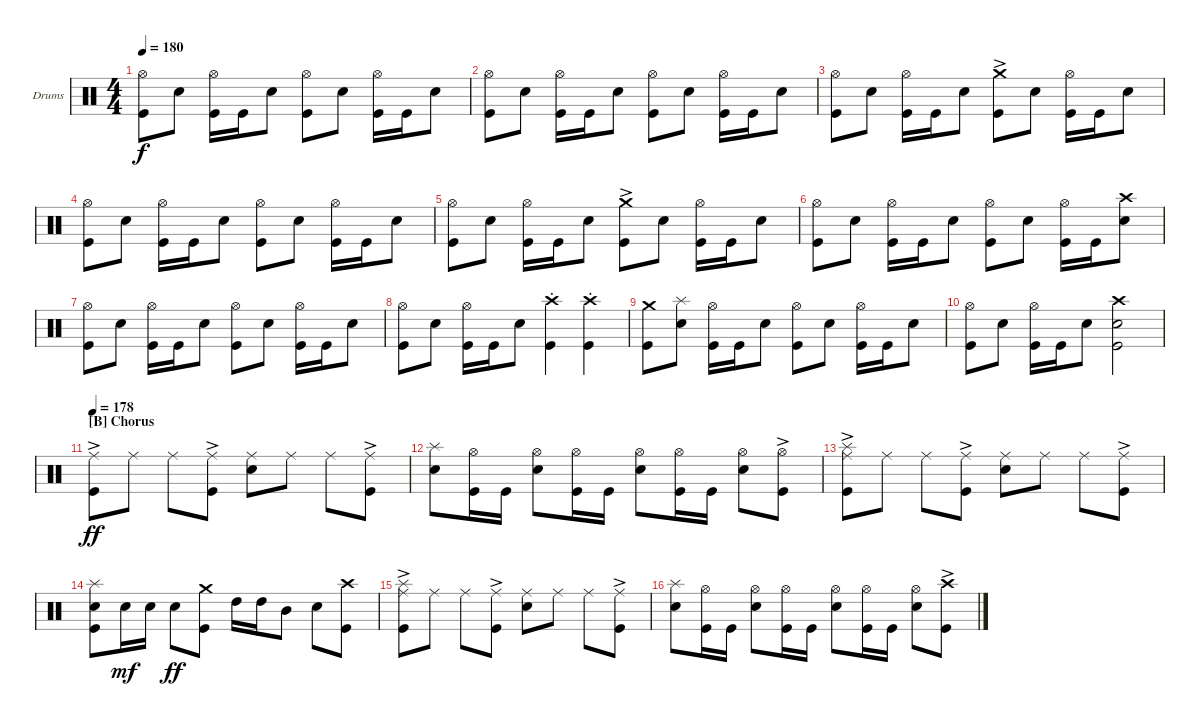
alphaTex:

\bracketExtendMode groupsimilarinstruments
\firstSystemTrackNameOrientation horizontal
\otherSystemsTrackNameOrientation horizontal
\track ("Drumkit" "Drums") {instrument percussion}
\staff {score}
\articulation defaults
\ts (4 4)
\tempo 180
\clef neutral
\scale
0.973518
\ks c
("Kick (hit)" "Hi-Hat (open)").8{dy f} "Snare (hit) 2".8 ("Kick (hit)" "Hi-Hat (open)").16 "Kick (hit)".16 "Snare (hit) 2".8 ("Kick (hit)" "Hi-Hat (open)").8 "Snare (hit) 2".8 ("Kick (hit)" "Hi-Hat (open)").16 "Kick (hit)".16 "Snare (hit) 2".8 |
\scale
1.02648 ("Kick (hit)" "Hi-Hat (open)").8 "Snare (hit) 2".8 ("Kick (hit)" "Hi-Hat (open)").16 "Kick (hit)".16 "Snare (hit) 2".8 ("Kick (hit)" "Hi-Hat (open)").8 "Snare (hit) 2".8 ("Kick (hit)" "Hi-Hat (open)").16 "Kick (hit)".16 "Snare (hit) 2".8 |
\scale
0.973518 ("Kick (hit)" "Hi-Hat (open)").8 "Snare (hit) 2".8 ("Kick (hit)" "Hi-Hat (open)").16 "Kick (hit)".16 "Snare (hit) 2".8 ("Kick (hit)" "Crash medium (hit)"{ac}).8 "Snare (hit) 2".8 ("Kick (hit)" "Hi-Hat (open)").16 "Kick (hit)".16 "Snare (hit) 2".8 |
\scale
1.02648 ("Kick (hit)" "Hi-Hat (open)").8 "Snare (hit) 2".8 ("Kick (hit)" "Hi-Hat (open)").16 "Kick (hit)".16 "Snare (hit) 2".8 ("Kick (hit)" "Hi-Hat (open)").8 "Snare (hit) 2".8 ("Kick (hit)" "Hi-Hat (open)").16 "Kick (hit)".16 "Snare (hit) 2".8 |
\scale
0.973518 ("Kick (hit)" "Hi-Hat (open)").8 "Snare (hit) 2".8 ("Kick (hit)" "Hi-Hat (open)").16 "Kick (hit)".16 "Snare (hit) 2".8 ("Kick (hit)" "Crash medium (hit)"{ac}).8 "Snare (hit) 2".8 ("Kick (hit)" "Hi-Hat (open)").16 "Kick (hit)".16 "Snare (hit) 2".8 |
\scale
1.02648 ("Kick (hit)" "Hi-Hat (open)").8 "Snare (hit) 2".8 ("Kick (hit)" "Hi-Hat (open)").16 "Kick (hit)".16 "Snare (hit) 2".8 ("Kick (hit)" "Hi-Hat (open)").8 "Snare (hit) 2".8 ("Kick (hit)" "Hi-Hat (open)").16 "Kick (hit)".16 ("Snare (hit) 2" "Crash high (hit)").8 |
\scale
0.973518 ("Kick (hit)" "Hi-Hat (open)").8 "Snare (hit) 2".8 ("Kick (hit)" "Hi-Hat (open)").16 "Kick (hit)".16 "Snare (hit) 2".8 ("Kick (hit)" "Hi-Hat (open)").8 "Snare (hit) 2".8 ("Kick (hit)" "Hi-Hat (open)").16 "Kick (hit)".16 "Snare (hit) 2".8 |
\scale
1.02648 ("Kick (hit)" "Hi-Hat (open)").8 "Snare (hit) 2".8 ("Kick (hit)" "Hi-Hat (open)").16 "Kick (hit)".16 "Snare (hit) 2".8 ("Kick (hit)" "Crash high (hit)"{st}).4 ("Kick (hit)" "Crash high (hit)"{st}).4 |
\scale
0.973518 ("Kick (hit)" "Crash medium (hit)").8 ("Snare (hit) 2" "Splash (hit)").8 ("Kick (hit)" "Hi-Hat (open)").16 "Kick (hit)".16 "Snare (hit) 2".8 ("Kick (hit)" "Hi-Hat (open)").8 "Snare (hit) 2".8 ("Kick (hit)" "Hi-Hat (open)").16 "Kick (hit)".16 "Snare (hit) 2".8 |
\scale
1.02648 ("Kick (hit)" "Hi-Hat (open)").8 "Snare (hit) 2".8 ("Kick (hit)" "Hi-Hat (open)").16 "Kick (hit)".16 "Snare (hit) 2".8 ("Kick (hit)" "Crash high (hit)" "Snare (hit) 2").2 |
\section ("B" "Chorus")
\tempo 178
\scale
0.973518 ("Kick (hit)"{ac} "Ride (middle)").8{dy ff} "Ride (middle)".8 "Ride (middle)".8 ("Ride (middle)" "Kick (hit)"{ac}).8 ("Ride (middle)" "Snare (hit) 2").8 "Ride (middle)".8 "Ride (middle)".8 ("Ride (middle)" "Kick (hit)"{ac}).8 |
\scale
1.02648 ("Snare (hit) 2" "Splash (hit)").8 ("Kick (hit)" "Hi-Hat (open)").16 "Kick (hit)".16 ("Snare (hit) 2" "Hi-Hat (open)").8 ("Kick (hit)" "Hi-Hat (open)").16 "Kick (hit)".16 ("Snare (hit) 2" "Hi-Hat (open)").8 ("Kick (hit)" "Hi-Hat (open)").16 "Kick (hit)".16 ("Snare (hit) 2" "Hi-Hat (open)").8 ("Kick (hit)"{ac} "Hi-Hat (open)").8 |
\scale
0.973518 ("Kick (hit)"{ac} "Ride (middle)" "Splash (hit)").8 "Ride (middle)".8 "Ride (middle)".8 ("Ride (middle)" "Kick (hit)"{ac}).8 ("Ride (middle)" "Snare (hit) 2").8 "Ride (middle)".8 "Ride (middle)".8 ("Ride (middle)" "Kick (hit)"{ac}).8 |
\scale
1.02648 ("Kick (hit)" "Snare (hit) 2" "Splash (hit)").8 "Snare (hit) 2".16{dy mf} "Snare (hit) 2".16 "Snare (hit) 2".8{dy ff} ("Kick (hit)" "Crash medium (hit)").8 "High Tom (hit)".16 "High Tom (hit)".16 "Mid Tom (hit)".8 "Snare (hit) 2".8 ("Kick (hit)" "Crash high (hit)").8 |
\scale
0.973518 ("Kick (hit)"{ac} "Ride (middle)" "Splash (hit)").8 "Ride (middle)".8 "Ride (middle)".8 ("Ride (middle)" "Kick (hit)"{ac}).8 ("Ride (middle)" "Snare (hit) 2").8 "Ride (middle)".8 "Ride (middle)".8 ("Ride (middle)" "Kick (hit)"{ac}).8 |
\scale
1.02648 ("Snare (hit) 2" "Splash (hit)").8 ("Kick (hit)" "Hi-Hat (open)").16 "Kick (hit)".16 ("Snare (hit) 2" "Hi-Hat (open)").8 ("Kick (hit)" "Hi-Hat (open)").16 "Kick (hit)".16 ("Snare (hit) 2" "Hi-Hat (open)").8 ("Kick (hit)" "Hi-Hat (open)").16 "Kick (hit)".16 ("Snare (hit) 2" "Hi-Hat (open)").8 ("Kick (hit)"{ac} "Crash high (hit)").8
